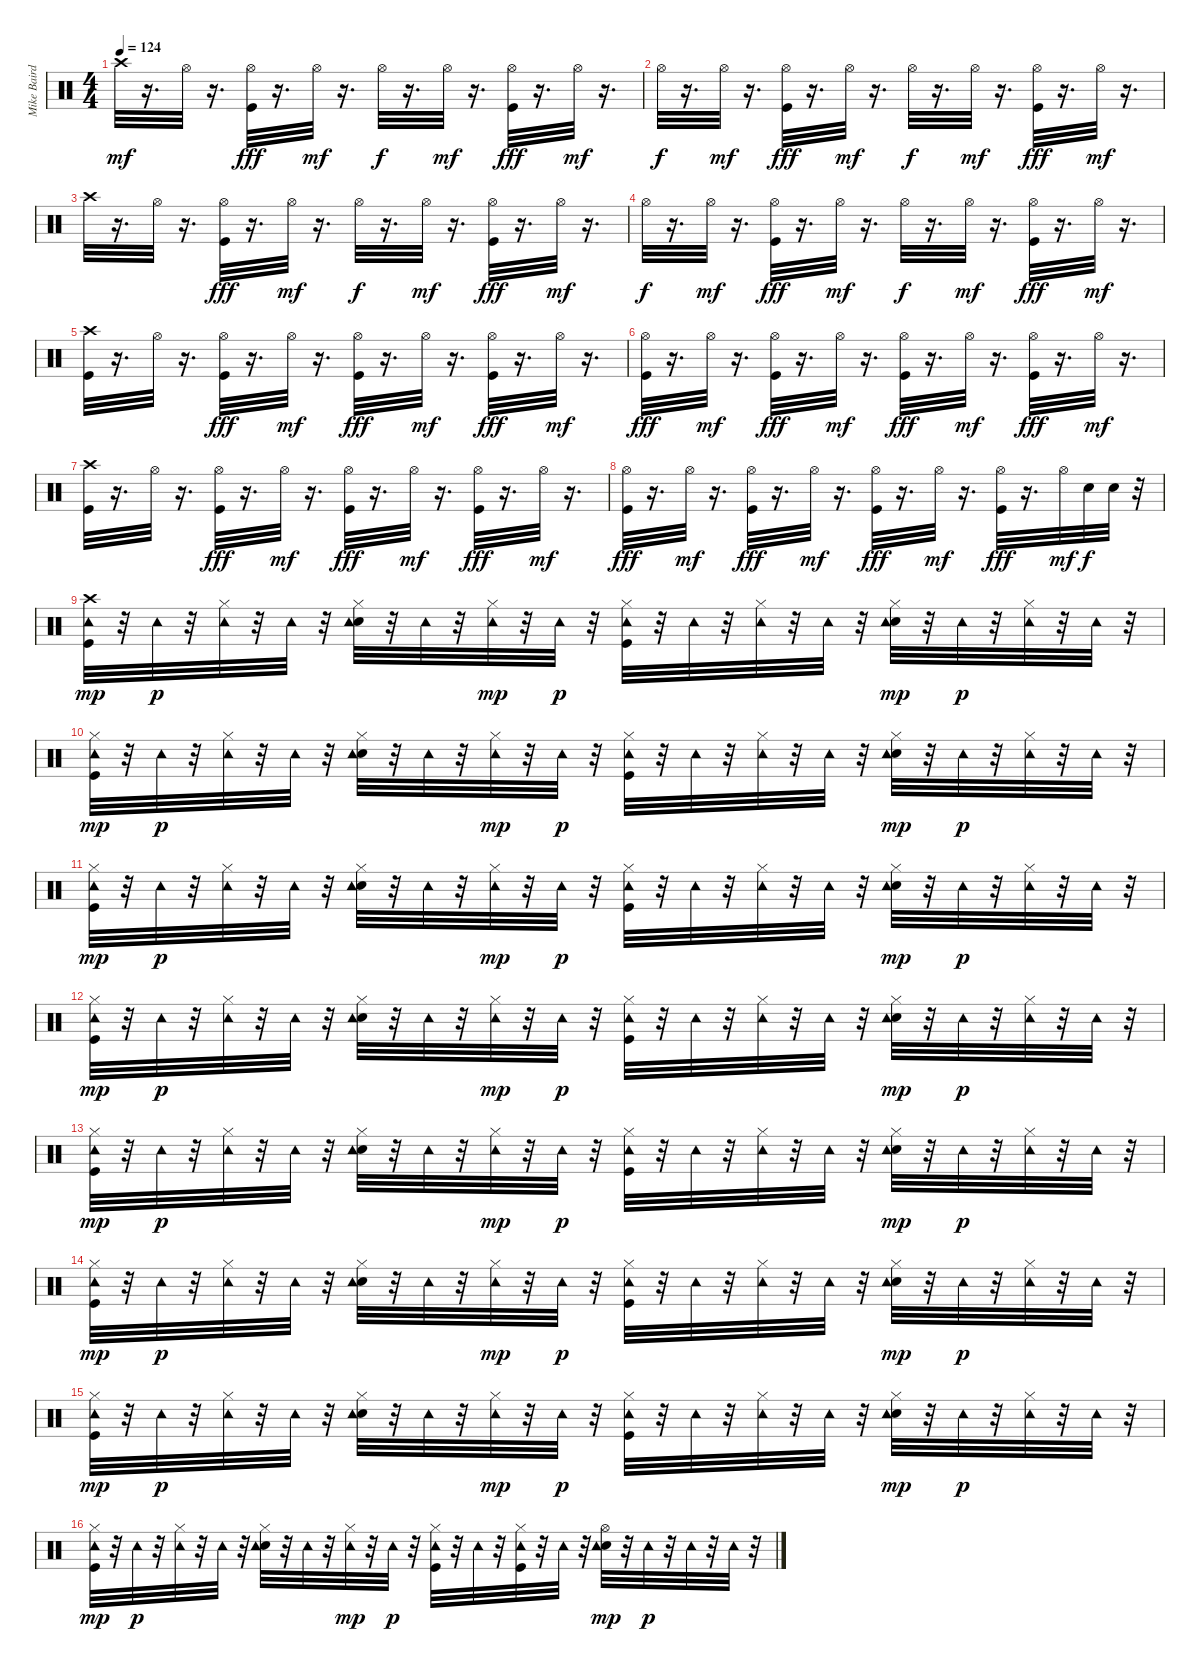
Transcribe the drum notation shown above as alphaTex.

\track ("Mike Baird [drums]" "Mike Baird") {instrument percussion}
\staff {score}
\articulation defaults
\ts (4 4)
\tempo 124
\clef neutral
\ks c "Crash high (hit)".32{dy mf}
r.16{d} "Hi-Hat (open)".32 r.16{d} ("Kick (hit)" "Hi-Hat (open)").32{dy fff} r.16{d} "Hi-Hat (open)".32{dy mf} r.16{d} "Hi-Hat (open)".32{dy f} r.16{d} "Hi-Hat (open)".32{dy mf} r.16{d} ("Kick (hit)" "Hi-Hat (open)").32{dy fff} r.16{d} "Hi-Hat (open)".32{dy mf} r.16{d} |
"Hi-Hat (open)".32{dy f} r.16{d} "Hi-Hat (open)".32{dy mf} r.16{d} ("Kick (hit)" "Hi-Hat (open)").32{dy fff} r.16{d} "Hi-Hat (open)".32{dy mf} r.16{d} "Hi-Hat (open)".32{dy f} r.16{d} "Hi-Hat (open)".32{dy mf} r.16{d} ("Kick (hit)" "Hi-Hat (open)").32{dy fff} r.16{d} "Hi-Hat (open)".32{dy mf} r.16{d} |
"Crash high (hit)".32 r.16{d} "Hi-Hat (open)".32 r.16{d} ("Kick (hit)" "Hi-Hat (open)").32{dy fff} r.16{d} "Hi-Hat (open)".32{dy mf} r.16{d} "Hi-Hat (open)".32{dy f} r.16{d} "Hi-Hat (open)".32{dy mf} r.16{d} ("Kick (hit)" "Hi-Hat (open)").32{dy fff} r.16{d} "Hi-Hat (open)".32{dy mf} r.16{d} |
"Hi-Hat (open)".32{dy f} r.16{d} "Hi-Hat (open)".32{dy mf} r.16{d} ("Kick (hit)" "Hi-Hat (open)").32{dy fff} r.16{d} "Hi-Hat (open)".32{dy mf} r.16{d} "Hi-Hat (open)".32{dy f} r.16{d} "Hi-Hat (open)".32{dy mf} r.16{d} ("Kick (hit)" "Hi-Hat (open)").32{dy fff} r.16{d} "Hi-Hat (open)".32{dy mf} r.16{d} |
("Kick (hit)" "Crash high (hit)").32 r.16{d} "Hi-Hat (open)".32 r.16{d} ("Kick (hit)" "Hi-Hat (open)").32{dy fff} r.16{d} "Hi-Hat (open)".32{dy mf} r.16{d} ("Kick (hit)" "Hi-Hat (open)").32{dy fff} r.16{d} "Hi-Hat (open)".32{dy mf} r.16{d} ("Kick (hit)" "Hi-Hat (open)").32{dy fff} r.16{d} "Hi-Hat (open)".32{dy mf} r.16{d} |
("Kick (hit)" "Hi-Hat (open)").32{dy fff} r.16{d} "Hi-Hat (open)".32{dy mf} r.16{d} ("Kick (hit)" "Hi-Hat (open)").32{dy fff} r.16{d} "Hi-Hat (open)".32{dy mf} r.16{d} ("Kick (hit)" "Hi-Hat (open)").32{dy fff} r.16{d} "Hi-Hat (open)".32{dy mf} r.16{d} ("Kick (hit)" "Hi-Hat (open)").32{dy fff} r.16{d} "Hi-Hat (open)".32{dy mf} r.16{d} |
("Kick (hit)" "Crash high (hit)").32 r.16{d} "Hi-Hat (open)".32 r.16{d} ("Kick (hit)" "Hi-Hat (open)").32{dy fff} r.16{d} "Hi-Hat (open)".32{dy mf} r.16{d} ("Kick (hit)" "Hi-Hat (open)").32{dy fff} r.16{d} "Hi-Hat (open)".32{dy mf} r.16{d} ("Kick (hit)" "Hi-Hat (open)").32{dy fff} r.16{d} "Hi-Hat (open)".32{dy mf} r.16{d} |
("Kick (hit)" "Hi-Hat (open)").32{dy fff} r.16{d} "Hi-Hat (open)".32{dy mf} r.16{d} ("Kick (hit)" "Hi-Hat (open)").32{dy fff} r.16{d} "Hi-Hat (open)".32{dy mf} r.16{d} ("Kick (hit)" "Hi-Hat (open)").32{dy fff} r.16{d} "Hi-Hat (open)".32{dy mf} r.16{d} ("Kick (hit)" "Hi-Hat (open)").32{dy fff} r.16{d} "Hi-Hat (open)".32{dy mf} "Electric Snare (hit)".32{dy f} "Electric Snare (hit)".32 r.32 |
("Kick (hit)" "Crash high (hit)" "Tambourine (hit)").32{dy mp} r.32 "Tambourine (hit)".32{dy p} r.32 ("Hi-Hat (closed)" "Tambourine (hit)").32 r.32 "Tambourine (hit)".32 r.32 ("Electric Snare (hit)" "Hi-Hat (closed)" "Tambourine (hit)").32 r.32 "Tambourine (hit)".32 r.32 ("Hi-Hat (closed)" "Tambourine (hit)").32{dy mp} r.32 "Tambourine (hit)".32{dy p} r.32 ("Kick (hit)" "Hi-Hat (closed)" "Tambourine (hit)").32 r.32 "Tambourine (hit)".32 r.32 ("Hi-Hat (closed)" "Tambourine (hit)").32 r.32 "Tambourine (hit)".32 r.32 ("Electric Snare (hit)" "Hi-Hat (closed)" "Tambourine (hit)").32{dy mp} r.32 "Tambourine (hit)".32{dy p} r.32 ("Hi-Hat (closed)" "Tambourine (hit)").32 r.32 "Tambourine (hit)".32 r.32 |
("Kick (hit)" "Hi-Hat (closed)" "Tambourine (hit)").32{dy mp} r.32 "Tambourine (hit)".32{dy p} r.32 ("Hi-Hat (closed)" "Tambourine (hit)").32 r.32 "Tambourine (hit)".32 r.32 ("Electric Snare (hit)" "Hi-Hat (closed)" "Tambourine (hit)").32 r.32 "Tambourine (hit)".32 r.32 ("Hi-Hat (closed)" "Tambourine (hit)").32{dy mp} r.32 "Tambourine (hit)".32{dy p} r.32 ("Kick (hit)" "Hi-Hat (closed)" "Tambourine (hit)").32 r.32 "Tambourine (hit)".32 r.32 ("Hi-Hat (closed)" "Tambourine (hit)").32 r.32 "Tambourine (hit)".32 r.32 ("Electric Snare (hit)" "Hi-Hat (closed)" "Tambourine (hit)").32{dy mp} r.32 "Tambourine (hit)".32{dy p} r.32 ("Hi-Hat (closed)" "Tambourine (hit)").32 r.32 "Tambourine (hit)".32 r.32 |
("Kick (hit)" "Hi-Hat (closed)" "Tambourine (hit)").32{dy mp} r.32 "Tambourine (hit)".32{dy p} r.32 ("Hi-Hat (closed)" "Tambourine (hit)").32 r.32 "Tambourine (hit)".32 r.32 ("Electric Snare (hit)" "Hi-Hat (closed)" "Tambourine (hit)").32 r.32 "Tambourine (hit)".32 r.32 ("Hi-Hat (closed)" "Tambourine (hit)").32{dy mp} r.32 "Tambourine (hit)".32{dy p} r.32 ("Kick (hit)" "Hi-Hat (closed)" "Tambourine (hit)").32 r.32 "Tambourine (hit)".32 r.32 ("Hi-Hat (closed)" "Tambourine (hit)").32 r.32 "Tambourine (hit)".32 r.32 ("Electric Snare (hit)" "Hi-Hat (closed)" "Tambourine (hit)").32{dy mp} r.32 "Tambourine (hit)".32{dy p} r.32 ("Hi-Hat (closed)" "Tambourine (hit)").32 r.32 "Tambourine (hit)".32 r.32 |
("Kick (hit)" "Hi-Hat (closed)" "Tambourine (hit)").32{dy mp} r.32 "Tambourine (hit)".32{dy p} r.32 ("Hi-Hat (closed)" "Tambourine (hit)").32 r.32 "Tambourine (hit)".32 r.32 ("Electric Snare (hit)" "Hi-Hat (closed)" "Tambourine (hit)").32 r.32 "Tambourine (hit)".32 r.32 ("Hi-Hat (closed)" "Tambourine (hit)").32{dy mp} r.32 "Tambourine (hit)".32{dy p} r.32 ("Kick (hit)" "Hi-Hat (closed)" "Tambourine (hit)").32 r.32 "Tambourine (hit)".32 r.32 ("Hi-Hat (closed)" "Tambourine (hit)").32 r.32 "Tambourine (hit)".32 r.32 ("Electric Snare (hit)" "Hi-Hat (closed)" "Tambourine (hit)").32{dy mp} r.32 "Tambourine (hit)".32{dy p} r.32 ("Hi-Hat (closed)" "Tambourine (hit)").32 r.32 "Tambourine (hit)".32 r.32 |
("Kick (hit)" "Hi-Hat (closed)" "Tambourine (hit)").32{dy mp} r.32 "Tambourine (hit)".32{dy p} r.32 ("Hi-Hat (closed)" "Tambourine (hit)").32 r.32 "Tambourine (hit)".32 r.32 ("Electric Snare (hit)" "Hi-Hat (closed)" "Tambourine (hit)").32 r.32 "Tambourine (hit)".32 r.32 ("Hi-Hat (closed)" "Tambourine (hit)").32{dy mp} r.32 "Tambourine (hit)".32{dy p} r.32 ("Kick (hit)" "Hi-Hat (closed)" "Tambourine (hit)").32 r.32 "Tambourine (hit)".32 r.32 ("Hi-Hat (closed)" "Tambourine (hit)").32 r.32 "Tambourine (hit)".32 r.32 ("Electric Snare (hit)" "Hi-Hat (closed)" "Tambourine (hit)").32{dy mp} r.32 "Tambourine (hit)".32{dy p} r.32 ("Hi-Hat (closed)" "Tambourine (hit)").32 r.32 "Tambourine (hit)".32 r.32 |
("Kick (hit)" "Hi-Hat (closed)" "Tambourine (hit)").32{dy mp} r.32 "Tambourine (hit)".32{dy p} r.32 ("Hi-Hat (closed)" "Tambourine (hit)").32 r.32 "Tambourine (hit)".32 r.32 ("Electric Snare (hit)" "Hi-Hat (closed)" "Tambourine (hit)").32 r.32 "Tambourine (hit)".32 r.32 ("Hi-Hat (closed)" "Tambourine (hit)").32{dy mp} r.32 "Tambourine (hit)".32{dy p} r.32 ("Kick (hit)" "Hi-Hat (closed)" "Tambourine (hit)").32 r.32 "Tambourine (hit)".32 r.32 ("Hi-Hat (closed)" "Tambourine (hit)").32 r.32 "Tambourine (hit)".32 r.32 ("Electric Snare (hit)" "Hi-Hat (closed)" "Tambourine (hit)").32{dy mp} r.32 "Tambourine (hit)".32{dy p} r.32 ("Hi-Hat (closed)" "Tambourine (hit)").32 r.32 "Tambourine (hit)".32 r.32 |
("Kick (hit)" "Hi-Hat (closed)" "Tambourine (hit)").32{dy mp} r.32 "Tambourine (hit)".32{dy p} r.32 ("Hi-Hat (closed)" "Tambourine (hit)").32 r.32 "Tambourine (hit)".32 r.32 ("Electric Snare (hit)" "Hi-Hat (closed)" "Tambourine (hit)").32 r.32 "Tambourine (hit)".32 r.32 ("Hi-Hat (closed)" "Tambourine (hit)").32{dy mp} r.32 "Tambourine (hit)".32{dy p} r.32 ("Kick (hit)" "Hi-Hat (closed)" "Tambourine (hit)").32 r.32 "Tambourine (hit)".32 r.32 ("Hi-Hat (closed)" "Tambourine (hit)").32 r.32 "Tambourine (hit)".32 r.32 ("Electric Snare (hit)" "Hi-Hat (closed)" "Tambourine (hit)").32{dy mp} r.32 "Tambourine (hit)".32{dy p} r.32 ("Hi-Hat (closed)" "Tambourine (hit)").32 r.32 "Tambourine (hit)".32 r.32 |
("Kick (hit)" "Hi-Hat (closed)" "Tambourine (hit)").32{dy mp} r.32 "Tambourine (hit)".32{dy p} r.32 ("Hi-Hat (closed)" "Tambourine (hit)").32 r.32 "Tambourine (hit)".32 r.32 ("Electric Snare (hit)" "Hi-Hat (closed)" "Tambourine (hit)").32 r.32 "Tambourine (hit)".32 r.32 ("Hi-Hat (closed)" "Tambourine (hit)").32{dy mp} r.32 "Tambourine (hit)".32{dy p} r.32 ("Kick (hit)" "Hi-Hat (closed)" "Tambourine (hit)").32 r.32 "Tambourine (hit)".32 r.32 ("Kick (hit)" "Hi-Hat (closed)" "Tambourine (hit)").32 r.32 "Tambourine (hit)".32 r.32 ("Electric Snare (hit)" "Hi-Hat (open)" "Tambourine (hit)").32{dy mp} r.32 "Tambourine (hit)".32{dy p} r.32 "Tambourine (hit)".32 r.32 "Tambourine (hit)".32 r.32
